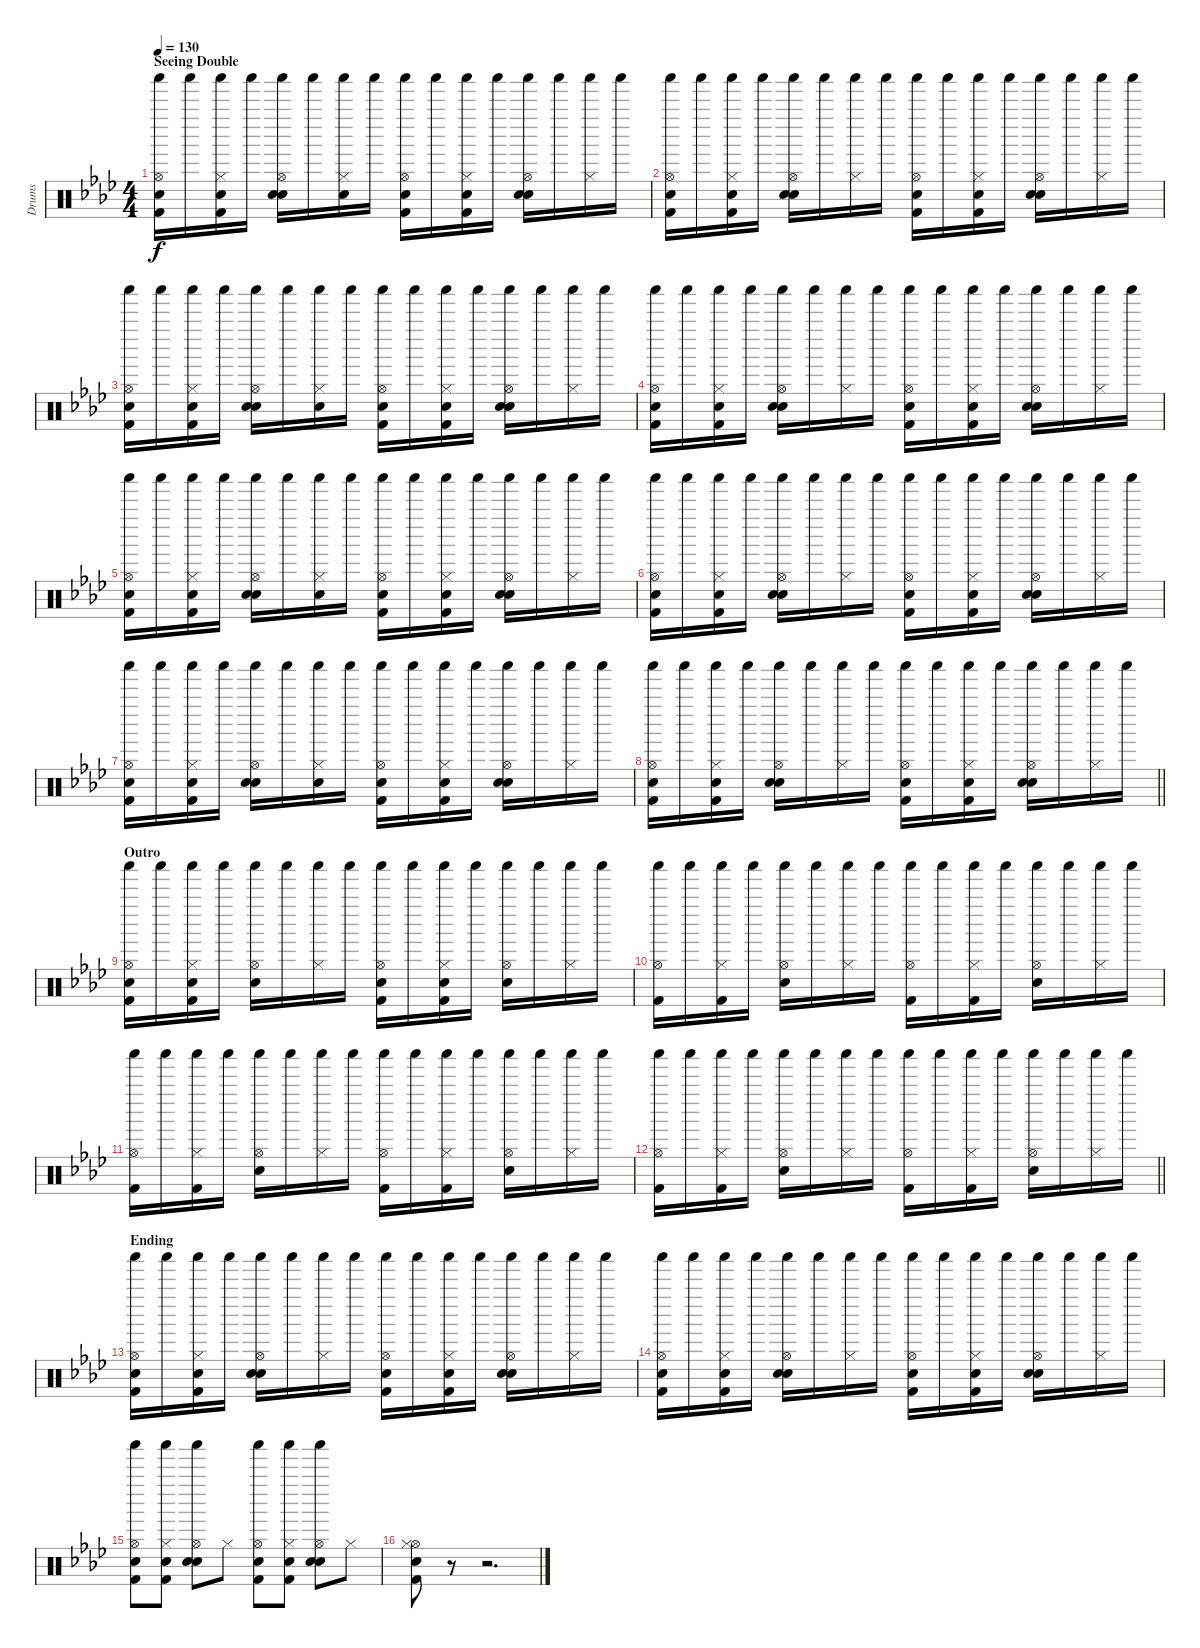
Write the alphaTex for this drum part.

\track ("Drums" "Drums") {instrument percussion}
\staff {score}
\articulation defaults
\ts (4 4)
\section ("" "Seeing Double")
\tempo 130
\clef neutral
\ks fminor
("Shaker (hit)" "Hi-Hat (open)" "Hand Clap (hit)" "Kick (hit) 2").16{dy f volume 10} "Shaker (hit)".16 ("Shaker (hit)" "Hi-Hat (closed)" "Hand Clap (hit)" "Kick (hit) 2").16 "Shaker (hit)".16 ("Shaker (hit)" "Hi-Hat (open)" "Hand Clap (hit)" "Electric Snare (hit)").16 "Shaker (hit)".16 ("Shaker (hit)" "Hi-Hat (closed)" "Hand Clap (hit)").16 "Shaker (hit)".16 ("Shaker (hit)" "Hi-Hat (open)" "Hand Clap (hit)" "Kick (hit) 2").16 "Shaker (hit)".16 ("Shaker (hit)" "Hi-Hat (closed)" "Hand Clap (hit)" "Kick (hit) 2").16 "Shaker (hit)".16 ("Shaker (hit)" "Hi-Hat (open)" "Hand Clap (hit)" "Electric Snare (hit)").16 "Shaker (hit)".16 ("Shaker (hit)" "Hi-Hat (closed)").16 "Shaker (hit)".16 |
("Shaker (hit)" "Hi-Hat (open)" "Hand Clap (hit)" "Kick (hit) 2").16 "Shaker (hit)".16 ("Shaker (hit)" "Hi-Hat (closed)" "Hand Clap (hit)" "Kick (hit) 2").16 "Shaker (hit)".16 ("Shaker (hit)" "Hi-Hat (open)" "Hand Clap (hit)" "Electric Snare (hit)").16 "Shaker (hit)".16 ("Shaker (hit)" "Hi-Hat (closed)").16 "Shaker (hit)".16 ("Shaker (hit)" "Hi-Hat (open)" "Hand Clap (hit)" "Kick (hit) 2").16 "Shaker (hit)".16 ("Shaker (hit)" "Hi-Hat (closed)" "Hand Clap (hit)" "Kick (hit) 2").16 "Shaker (hit)".16 ("Shaker (hit)" "Hi-Hat (open)" "Hand Clap (hit)" "Electric Snare (hit)").16 "Shaker (hit)".16 ("Shaker (hit)" "Hi-Hat (closed)").16 "Shaker (hit)".16 |
("Shaker (hit)" "Hi-Hat (open)" "Hand Clap (hit)" "Kick (hit) 2").16 "Shaker (hit)".16 ("Shaker (hit)" "Hi-Hat (closed)" "Hand Clap (hit)" "Kick (hit) 2").16 "Shaker (hit)".16 ("Shaker (hit)" "Hi-Hat (open)" "Hand Clap (hit)" "Electric Snare (hit)").16 "Shaker (hit)".16 ("Shaker (hit)" "Hi-Hat (closed)" "Hand Clap (hit)").16 "Shaker (hit)".16 ("Shaker (hit)" "Hi-Hat (open)" "Hand Clap (hit)" "Kick (hit) 2").16 "Shaker (hit)".16 ("Shaker (hit)" "Hi-Hat (closed)" "Hand Clap (hit)" "Kick (hit) 2").16 "Shaker (hit)".16 ("Shaker (hit)" "Hi-Hat (open)" "Hand Clap (hit)" "Electric Snare (hit)").16 "Shaker (hit)".16 ("Shaker (hit)" "Hi-Hat (closed)").16 "Shaker (hit)".16 |
("Shaker (hit)" "Hi-Hat (open)" "Hand Clap (hit)" "Kick (hit) 2").16 "Shaker (hit)".16 ("Shaker (hit)" "Hi-Hat (closed)" "Hand Clap (hit)" "Kick (hit) 2").16 "Shaker (hit)".16 ("Shaker (hit)" "Hi-Hat (open)" "Hand Clap (hit)" "Electric Snare (hit)").16 "Shaker (hit)".16 ("Shaker (hit)" "Hi-Hat (closed)").16 "Shaker (hit)".16 ("Shaker (hit)" "Hi-Hat (open)" "Hand Clap (hit)" "Kick (hit) 2").16 "Shaker (hit)".16 ("Shaker (hit)" "Hi-Hat (closed)" "Hand Clap (hit)" "Kick (hit) 2").16 "Shaker (hit)".16 ("Shaker (hit)" "Hi-Hat (open)" "Hand Clap (hit)" "Electric Snare (hit)").16 "Shaker (hit)".16 ("Shaker (hit)" "Hi-Hat (closed)").16 "Shaker (hit)".16 |
("Shaker (hit)" "Hi-Hat (open)" "Hand Clap (hit)" "Kick (hit) 2").16 "Shaker (hit)".16 ("Shaker (hit)" "Hi-Hat (closed)" "Hand Clap (hit)" "Kick (hit) 2").16 "Shaker (hit)".16 ("Shaker (hit)" "Hi-Hat (open)" "Hand Clap (hit)" "Electric Snare (hit)").16 "Shaker (hit)".16 ("Shaker (hit)" "Hi-Hat (closed)" "Hand Clap (hit)").16 "Shaker (hit)".16 ("Shaker (hit)" "Hi-Hat (open)" "Hand Clap (hit)" "Kick (hit) 2").16 "Shaker (hit)".16 ("Shaker (hit)" "Hi-Hat (closed)" "Hand Clap (hit)" "Kick (hit) 2").16 "Shaker (hit)".16 ("Shaker (hit)" "Hi-Hat (open)" "Hand Clap (hit)" "Electric Snare (hit)").16 "Shaker (hit)".16 ("Shaker (hit)" "Hi-Hat (closed)").16 "Shaker (hit)".16 |
("Shaker (hit)" "Hi-Hat (open)" "Hand Clap (hit)" "Kick (hit) 2").16 "Shaker (hit)".16 ("Shaker (hit)" "Hi-Hat (closed)" "Hand Clap (hit)" "Kick (hit) 2").16 "Shaker (hit)".16 ("Shaker (hit)" "Hi-Hat (open)" "Hand Clap (hit)" "Electric Snare (hit)").16 "Shaker (hit)".16 ("Shaker (hit)" "Hi-Hat (closed)").16 "Shaker (hit)".16 ("Shaker (hit)" "Hi-Hat (open)" "Hand Clap (hit)" "Kick (hit) 2").16 "Shaker (hit)".16 ("Shaker (hit)" "Hi-Hat (closed)" "Hand Clap (hit)" "Kick (hit) 2").16 "Shaker (hit)".16 ("Shaker (hit)" "Hi-Hat (open)" "Hand Clap (hit)" "Electric Snare (hit)").16 "Shaker (hit)".16 ("Shaker (hit)" "Hi-Hat (closed)").16 "Shaker (hit)".16 |
("Shaker (hit)" "Hi-Hat (open)" "Hand Clap (hit)" "Kick (hit) 2").16 "Shaker (hit)".16 ("Shaker (hit)" "Hi-Hat (closed)" "Hand Clap (hit)" "Kick (hit) 2").16 "Shaker (hit)".16 ("Shaker (hit)" "Hi-Hat (open)" "Hand Clap (hit)" "Electric Snare (hit)").16 "Shaker (hit)".16 ("Shaker (hit)" "Hi-Hat (closed)" "Hand Clap (hit)").16 "Shaker (hit)".16 ("Shaker (hit)" "Hi-Hat (open)" "Hand Clap (hit)" "Kick (hit) 2").16 "Shaker (hit)".16 ("Shaker (hit)" "Hi-Hat (closed)" "Hand Clap (hit)" "Kick (hit) 2").16 "Shaker (hit)".16 ("Shaker (hit)" "Hi-Hat (open)" "Hand Clap (hit)" "Electric Snare (hit)").16 "Shaker (hit)".16 ("Shaker (hit)" "Hi-Hat (closed)").16 "Shaker (hit)".16 |
\barLineRight lightlight
("Shaker (hit)" "Hi-Hat (open)" "Hand Clap (hit)" "Kick (hit) 2").16 "Shaker (hit)".16 ("Shaker (hit)" "Hi-Hat (closed)" "Hand Clap (hit)" "Kick (hit) 2").16 "Shaker (hit)".16 ("Shaker (hit)" "Hi-Hat (open)" "Hand Clap (hit)" "Electric Snare (hit)").16 "Shaker (hit)".16 ("Shaker (hit)" "Hi-Hat (closed)").16 "Shaker (hit)".16 ("Shaker (hit)" "Hi-Hat (open)" "Hand Clap (hit)" "Kick (hit) 2").16 "Shaker (hit)".16 ("Shaker (hit)" "Hi-Hat (closed)" "Hand Clap (hit)" "Kick (hit) 2").16 "Shaker (hit)".16 ("Shaker (hit)" "Hi-Hat (open)" "Hand Clap (hit)" "Electric Snare (hit)").16 "Shaker (hit)".16 ("Shaker (hit)" "Hi-Hat (closed)").16 "Shaker (hit)".16 |
\section ("" "Outro")
("Shaker (hit)" "Hi-Hat (open)" "Hand Clap (hit)" "Kick (hit) 2").16 "Shaker (hit)".16 ("Shaker (hit)" "Hi-Hat (closed)" "Hand Clap (hit)" "Kick (hit) 2").16 "Shaker (hit)".16 ("Shaker (hit)" "Hi-Hat (open)" "Electric Snare (hit)").16 "Shaker (hit)".16 ("Shaker (hit)" "Hi-Hat (closed)").16 "Shaker (hit)".16 ("Shaker (hit)" "Hi-Hat (open)" "Hand Clap (hit)" "Kick (hit) 2").16 "Shaker (hit)".16 ("Shaker (hit)" "Hi-Hat (closed)" "Hand Clap (hit)" "Kick (hit) 2").16 "Shaker (hit)".16 ("Shaker (hit)" "Hi-Hat (open)" "Electric Snare (hit)").16 "Shaker (hit)".16 ("Shaker (hit)" "Hi-Hat (closed)").16 "Shaker (hit)".16 |
("Shaker (hit)" "Hi-Hat (open)" "Kick (hit) 2").16 "Shaker (hit)".16 ("Shaker (hit)" "Hi-Hat (closed)" "Kick (hit) 2").16 "Shaker (hit)".16 ("Shaker (hit)" "Hi-Hat (open)" "Electric Snare (hit)").16 "Shaker (hit)".16 ("Shaker (hit)" "Hi-Hat (closed)").16 "Shaker (hit)".16 ("Shaker (hit)" "Hi-Hat (open)" "Kick (hit) 2").16 "Shaker (hit)".16 ("Shaker (hit)" "Hi-Hat (closed)" "Kick (hit) 2").16 "Shaker (hit)".16 ("Shaker (hit)" "Hi-Hat (open)" "Electric Snare (hit)").16 "Shaker (hit)".16 ("Shaker (hit)" "Hi-Hat (closed)").16 "Shaker (hit)".16 |
("Shaker (hit)" "Hi-Hat (open)" "Kick (hit) 2").16 "Shaker (hit)".16 ("Shaker (hit)" "Hi-Hat (closed)" "Kick (hit) 2").16 "Shaker (hit)".16 ("Shaker (hit)" "Hi-Hat (open)" "Electric Snare (hit)").16 "Shaker (hit)".16 ("Shaker (hit)" "Hi-Hat (closed)").16 "Shaker (hit)".16 ("Shaker (hit)" "Hi-Hat (open)" "Kick (hit) 2").16 "Shaker (hit)".16 ("Shaker (hit)" "Hi-Hat (closed)" "Kick (hit) 2").16 "Shaker (hit)".16 ("Shaker (hit)" "Hi-Hat (open)" "Electric Snare (hit)").16 "Shaker (hit)".16 ("Shaker (hit)" "Hi-Hat (closed)").16 "Shaker (hit)".16 |
\barLineRight lightlight
("Shaker (hit)" "Hi-Hat (open)" "Kick (hit) 2").16 "Shaker (hit)".16 ("Shaker (hit)" "Hi-Hat (closed)" "Kick (hit) 2").16 "Shaker (hit)".16 ("Shaker (hit)" "Hi-Hat (open)" "Electric Snare (hit)").16 "Shaker (hit)".16 ("Shaker (hit)" "Hi-Hat (closed)").16 "Shaker (hit)".16 ("Shaker (hit)" "Hi-Hat (open)" "Kick (hit) 2").16 "Shaker (hit)".16 ("Shaker (hit)" "Hi-Hat (closed)" "Kick (hit) 2").16 "Shaker (hit)".16 ("Shaker (hit)" "Hi-Hat (open)" "Electric Snare (hit)").16 "Shaker (hit)".16 ("Shaker (hit)" "Hi-Hat (closed)").16 "Shaker (hit)".16 |
\section ("" "Ending")
("Shaker (hit)" "Hi-Hat (open)" "Hand Clap (hit)" "Kick (hit) 2").16 "Shaker (hit)".16 ("Shaker (hit)" "Hi-Hat (closed)" "Hand Clap (hit)" "Kick (hit) 2").16 "Shaker (hit)".16 ("Shaker (hit)" "Hi-Hat (open)" "Hand Clap (hit)" "Electric Snare (hit)").16 "Shaker (hit)".16 ("Shaker (hit)" "Hi-Hat (closed)").16 "Shaker (hit)".16 ("Shaker (hit)" "Hi-Hat (open)" "Hand Clap (hit)" "Kick (hit) 2").16 "Shaker (hit)".16 ("Shaker (hit)" "Hi-Hat (closed)" "Hand Clap (hit)" "Kick (hit) 2").16 "Shaker (hit)".16 ("Shaker (hit)" "Hi-Hat (open)" "Hand Clap (hit)" "Electric Snare (hit)").16 "Shaker (hit)".16 ("Shaker (hit)" "Hi-Hat (closed)").16 "Shaker (hit)".16 |
("Shaker (hit)" "Hi-Hat (open)" "Hand Clap (hit)" "Kick (hit) 2").16 "Shaker (hit)".16 ("Shaker (hit)" "Hi-Hat (closed)" "Hand Clap (hit)" "Kick (hit) 2").16 "Shaker (hit)".16 ("Shaker (hit)" "Hi-Hat (open)" "Hand Clap (hit)" "Electric Snare (hit)").16 "Shaker (hit)".16 ("Shaker (hit)" "Hi-Hat (closed)").16 "Shaker (hit)".16 ("Shaker (hit)" "Hi-Hat (open)" "Hand Clap (hit)" "Kick (hit) 2").16 "Shaker (hit)".16 ("Shaker (hit)" "Hi-Hat (closed)" "Hand Clap (hit)" "Kick (hit) 2").16 "Shaker (hit)".16 ("Shaker (hit)" "Hi-Hat (open)" "Hand Clap (hit)" "Electric Snare (hit)").16 "Shaker (hit)".16 ("Shaker (hit)" "Hi-Hat (closed)").16 "Shaker (hit)".16 |
("Hi-Hat (open)" "Hand Clap (hit)" "Shaker (hit)" "Kick (hit) 2").8 ("Hi-Hat (closed)" "Hand Clap (hit)" "Shaker (hit)" "Kick (hit) 2").8 ("Hi-Hat (open)" "Hand Clap (hit)" "Shaker (hit)" "Electric Snare (hit)").8 "Hi-Hat (closed)".8 ("Hi-Hat (open)" "Hand Clap (hit)" "Shaker (hit)" "Kick (hit) 2").8 ("Hi-Hat (closed)" "Hand Clap (hit)" "Shaker (hit)" "Kick (hit) 2").8 ("Hi-Hat (open)" "Hand Clap (hit)" "Shaker (hit)" "Electric Snare (hit)").8 "Hi-Hat (closed)".8 |
("Hi-Hat (open)" "Hi-Hat (closed)" "Hand Clap (hit)" "Kick (hit) 2").8 r.8 r.2{d}
